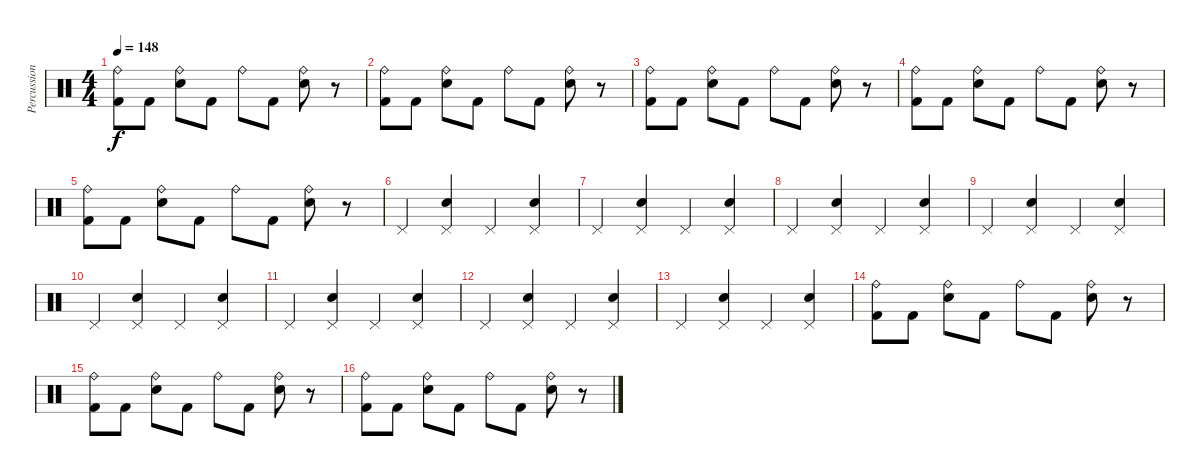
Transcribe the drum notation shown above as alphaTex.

\track ("Percussions" "Percussion") {instrument percussion}
\staff {score}
\articulation defaults
\ts (4 4)
\tempo 148
\clef neutral
\ks c
("Kick (hit) 2" "Ride (bell)").8{dy f} "Kick (hit) 2".8 ("Electric Snare (hit)" "Ride (bell)").8 "Kick (hit) 2".8 "Ride (bell)".8 "Kick (hit) 2".8 ("Electric Snare (hit)" "Ride (bell)").8 r.8 |
("Kick (hit) 2" "Ride (bell)").8 "Kick (hit) 2".8 ("Electric Snare (hit)" "Ride (bell)").8 "Kick (hit) 2".8 "Ride (bell)".8 "Kick (hit) 2".8 ("Electric Snare (hit)" "Ride (bell)").8 r.8 |
("Kick (hit) 2" "Ride (bell)").8 "Kick (hit) 2".8 ("Electric Snare (hit)" "Ride (bell)").8 "Kick (hit) 2".8 "Ride (bell)".8 "Kick (hit) 2".8 ("Electric Snare (hit)" "Ride (bell)").8 r.8 |
("Kick (hit) 2" "Ride (bell)").8 "Kick (hit) 2".8 ("Electric Snare (hit)" "Ride (bell)").8 "Kick (hit) 2".8 "Ride (bell)".8 "Kick (hit) 2".8 ("Electric Snare (hit)" "Ride (bell)").8 r.8 |
("Kick (hit) 2" "Ride (bell)").8 "Kick (hit) 2".8 ("Electric Snare (hit)" "Ride (bell)").8 "Kick (hit) 2".8 "Ride (bell)".8 "Kick (hit) 2".8 ("Electric Snare (hit)" "Ride (bell)").8 r.8 |
"Pedal Hi-Hat (hit)".4 ("Electric Snare (hit)" "Pedal Hi-Hat (hit)").4 "Pedal Hi-Hat (hit)".4 ("Electric Snare (hit)" "Pedal Hi-Hat (hit)").4 |
"Pedal Hi-Hat (hit)".4 ("Electric Snare (hit)" "Pedal Hi-Hat (hit)").4 "Pedal Hi-Hat (hit)".4 ("Electric Snare (hit)" "Pedal Hi-Hat (hit)").4 |
"Pedal Hi-Hat (hit)".4 ("Electric Snare (hit)" "Pedal Hi-Hat (hit)").4 "Pedal Hi-Hat (hit)".4 ("Electric Snare (hit)" "Pedal Hi-Hat (hit)").4 |
"Pedal Hi-Hat (hit)".4 ("Electric Snare (hit)" "Pedal Hi-Hat (hit)").4 "Pedal Hi-Hat (hit)".4 ("Electric Snare (hit)" "Pedal Hi-Hat (hit)").4 |
"Pedal Hi-Hat (hit)".4 ("Electric Snare (hit)" "Pedal Hi-Hat (hit)").4 "Pedal Hi-Hat (hit)".4 ("Electric Snare (hit)" "Pedal Hi-Hat (hit)").4 |
"Pedal Hi-Hat (hit)".4 ("Electric Snare (hit)" "Pedal Hi-Hat (hit)").4 "Pedal Hi-Hat (hit)".4 ("Electric Snare (hit)" "Pedal Hi-Hat (hit)").4 |
"Pedal Hi-Hat (hit)".4 ("Electric Snare (hit)" "Pedal Hi-Hat (hit)").4 "Pedal Hi-Hat (hit)".4 ("Electric Snare (hit)" "Pedal Hi-Hat (hit)").4 |
"Pedal Hi-Hat (hit)".4 ("Electric Snare (hit)" "Pedal Hi-Hat (hit)").4 "Pedal Hi-Hat (hit)".4 ("Electric Snare (hit)" "Pedal Hi-Hat (hit)").4 |
("Kick (hit) 2" "Ride (bell)").8 "Kick (hit) 2".8 ("Electric Snare (hit)" "Ride (bell)").8 "Kick (hit) 2".8 "Ride (bell)".8 "Kick (hit) 2".8 ("Electric Snare (hit)" "Ride (bell)").8 r.8 |
("Kick (hit) 2" "Ride (bell)").8 "Kick (hit) 2".8 ("Electric Snare (hit)" "Ride (bell)").8 "Kick (hit) 2".8 "Ride (bell)".8 "Kick (hit) 2".8 ("Electric Snare (hit)" "Ride (bell)").8 r.8 |
("Kick (hit) 2" "Ride (bell)").8 "Kick (hit) 2".8 ("Electric Snare (hit)" "Ride (bell)").8 "Kick (hit) 2".8 "Ride (bell)".8 "Kick (hit) 2".8 ("Electric Snare (hit)" "Ride (bell)").8 r.8
